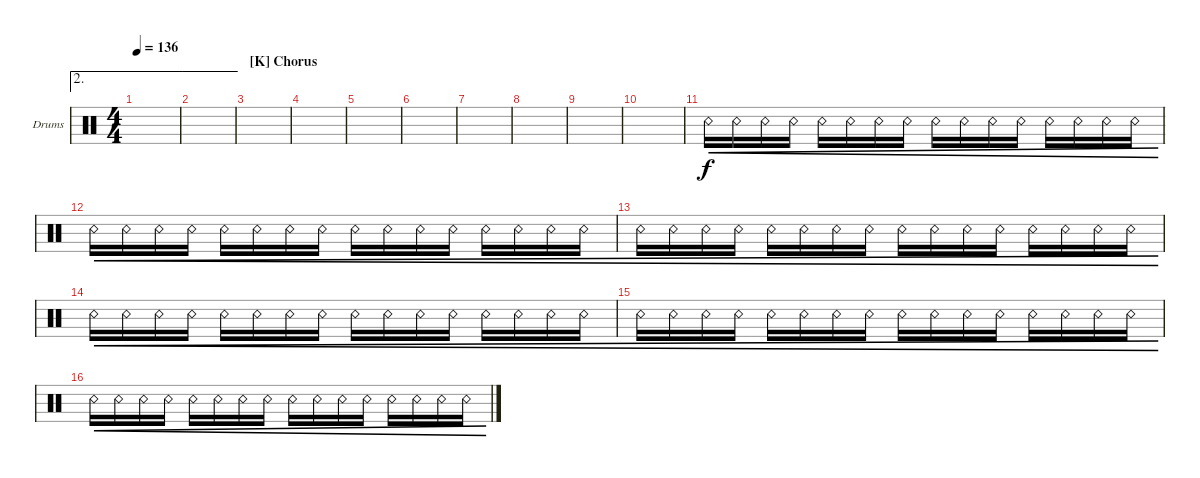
\defaultSystemsLayout 4
\bracketExtendMode groupsimilarinstruments
\firstSystemTrackNameOrientation horizontal
\otherSystemsTrackNameOrientation horizontal
\track ("Drums" "Drums") {instrument percussion}
\staff {score}
\articulation defaults
\ae 2
\ts (4 4)
\tempo 136
\clef neutral
\scale
0.333333
\ks c
|
\ae 2
\scale
0.333333 |
\section ("K" "Chorus")
\scale
0.333333 |
\scale
0.333333 |
\scale
0.333333 |
\scale
0.333333 |
\scale
0.333333 |
\scale
0.333333 |
\scale
0.333333 |
\scale
0.333333 |
\scale
0.333333 "Snare (rim shot)".16{cre} "Snare (rim shot)".16{cre} "Snare (rim shot)".16{cre} "Snare (rim shot)".16{cre} "Snare (rim shot)".16{cre} "Snare (rim shot)".16{cre} "Snare (rim shot)".16{cre} "Snare (rim shot)".16{cre} "Snare (rim shot)".16{cre} "Snare (rim shot)".16{cre} "Snare (rim shot)".16{cre} "Snare (rim shot)".16{cre} "Snare (rim shot)".16{cre} "Snare (rim shot)".16{cre} "Snare (rim shot)".16{cre} "Snare (rim shot)".16{cre} |
\scale
0.333333 "Snare (rim shot)".16{cre} "Snare (rim shot)".16{cre} "Snare (rim shot)".16{cre} "Snare (rim shot)".16{cre} "Snare (rim shot)".16{cre} "Snare (rim shot)".16{cre} "Snare (rim shot)".16{cre} "Snare (rim shot)".16{cre} "Snare (rim shot)".16{cre} "Snare (rim shot)".16{cre} "Snare (rim shot)".16{cre} "Snare (rim shot)".16{cre} "Snare (rim shot)".16{cre} "Snare (rim shot)".16{cre} "Snare (rim shot)".16{cre} "Snare (rim shot)".16{cre} |
\scale
0.333333 "Snare (rim shot)".16{cre} "Snare (rim shot)".16{cre} "Snare (rim shot)".16{cre} "Snare (rim shot)".16{cre} "Snare (rim shot)".16{cre} "Snare (rim shot)".16{cre} "Snare (rim shot)".16{cre} "Snare (rim shot)".16{cre} "Snare (rim shot)".16{cre} "Snare (rim shot)".16{cre} "Snare (rim shot)".16{cre} "Snare (rim shot)".16{cre} "Snare (rim shot)".16{cre} "Snare (rim shot)".16{cre} "Snare (rim shot)".16{cre} "Snare (rim shot)".16{cre} |
\scale
0.333333 "Snare (rim shot)".16{cre} "Snare (rim shot)".16{cre} "Snare (rim shot)".16{cre} "Snare (rim shot)".16{cre} "Snare (rim shot)".16{cre} "Snare (rim shot)".16{cre} "Snare (rim shot)".16{cre} "Snare (rim shot)".16{cre} "Snare (rim shot)".16{cre} "Snare (rim shot)".16{cre} "Snare (rim shot)".16{cre} "Snare (rim shot)".16{cre} "Snare (rim shot)".16{cre} "Snare (rim shot)".16{cre} "Snare (rim shot)".16{cre} "Snare (rim shot)".16{cre} |
\scale
0.333333 "Snare (rim shot)".16{cre} "Snare (rim shot)".16{cre} "Snare (rim shot)".16{cre} "Snare (rim shot)".16{cre} "Snare (rim shot)".16{cre} "Snare (rim shot)".16{cre} "Snare (rim shot)".16{cre} "Snare (rim shot)".16{cre} "Snare (rim shot)".16{cre} "Snare (rim shot)".16{cre} "Snare (rim shot)".16{cre} "Snare (rim shot)".16{cre} "Snare (rim shot)".16{cre} "Snare (rim shot)".16{cre} "Snare (rim shot)".16{cre} "Snare (rim shot)".16{cre} |
\scale
0.333333 "Snare (rim shot)".16{cre} "Snare (rim shot)".16{cre} "Snare (rim shot)".16{cre} "Snare (rim shot)".16{cre} "Snare (rim shot)".16{cre} "Snare (rim shot)".16{cre} "Snare (rim shot)".16{cre} "Snare (rim shot)".16{cre} "Snare (rim shot)".16{cre} "Snare (rim shot)".16{cre} "Snare (rim shot)".16{cre} "Snare (rim shot)".16{cre} "Snare (rim shot)".16{cre} "Snare (rim shot)".16{cre} "Snare (rim shot)".16{cre} "Snare (rim shot)".16{cre}
